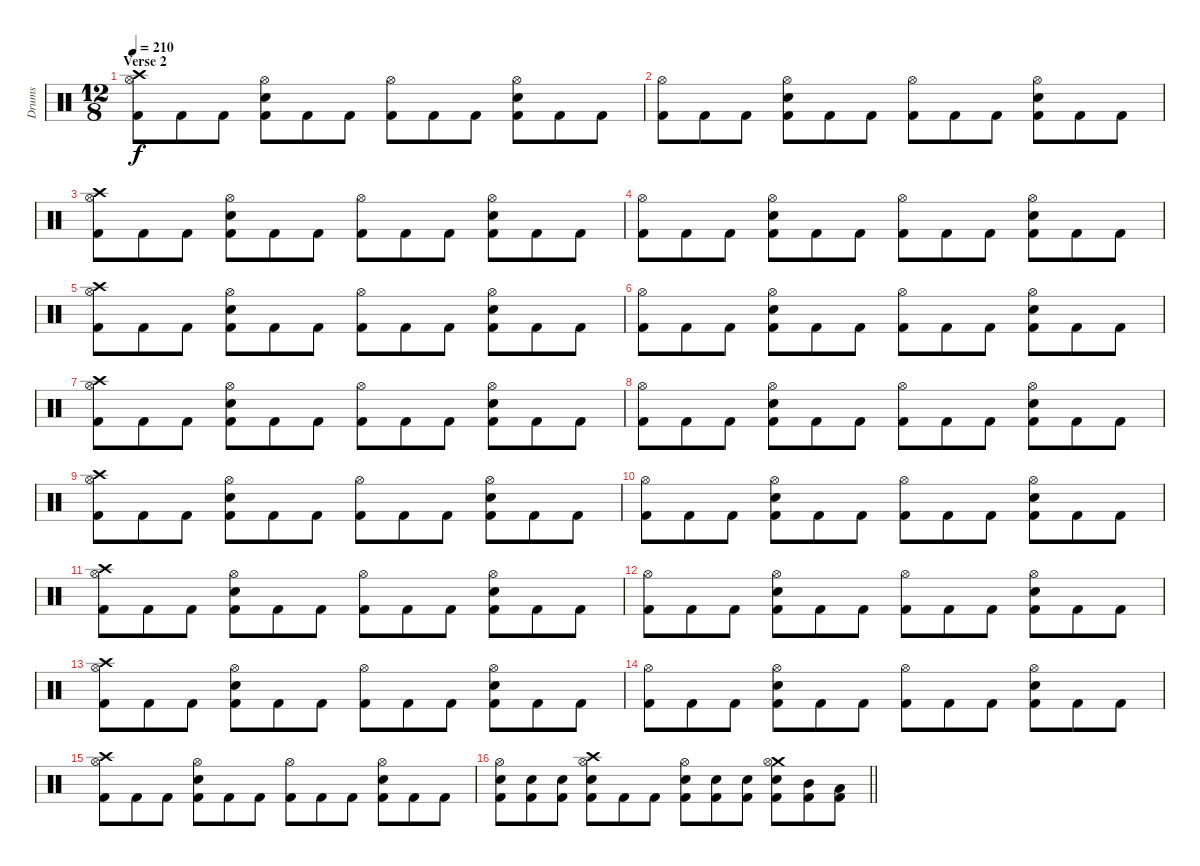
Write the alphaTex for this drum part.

\track ("Drums" "Drums") {instrument percussion}
\staff {score}
\articulation defaults
\ts (12 8)
\section ("" "Verse 2")
\tempo 210
\clef neutral
\ks c
("Crash high (hit)" "Hi-Hat (open)" "Kick (hit) 2").8{dy f} "Kick (hit) 2".8 "Kick (hit) 2".8 ("Hi-Hat (open)" "Snare (hit) 2" "Kick (hit) 2").8 "Kick (hit) 2".8 "Kick (hit) 2".8 ("Hi-Hat (open)" "Kick (hit) 2").8 "Kick (hit) 2".8 "Kick (hit) 2".8 ("Hi-Hat (open)" "Snare (hit) 2" "Kick (hit) 2").8 "Kick (hit) 2".8 "Kick (hit) 2".8 |
("Hi-Hat (open)" "Kick (hit) 2").8 "Kick (hit) 2".8 "Kick (hit) 2".8 ("Hi-Hat (open)" "Snare (hit) 2" "Kick (hit) 2").8 "Kick (hit) 2".8 "Kick (hit) 2".8 ("Hi-Hat (open)" "Kick (hit) 2").8 "Kick (hit) 2".8 "Kick (hit) 2".8 ("Hi-Hat (open)" "Snare (hit) 2" "Kick (hit) 2").8 "Kick (hit) 2".8 "Kick (hit) 2".8 |
("Crash high (hit)" "Hi-Hat (open)" "Kick (hit) 2").8 "Kick (hit) 2".8 "Kick (hit) 2".8 ("Hi-Hat (open)" "Snare (hit) 2" "Kick (hit) 2").8 "Kick (hit) 2".8 "Kick (hit) 2".8 ("Hi-Hat (open)" "Kick (hit) 2").8 "Kick (hit) 2".8 "Kick (hit) 2".8 ("Hi-Hat (open)" "Snare (hit) 2" "Kick (hit) 2").8 "Kick (hit) 2".8 "Kick (hit) 2".8 |
("Hi-Hat (open)" "Kick (hit) 2").8 "Kick (hit) 2".8 "Kick (hit) 2".8 ("Hi-Hat (open)" "Snare (hit) 2" "Kick (hit) 2").8 "Kick (hit) 2".8 "Kick (hit) 2".8 ("Hi-Hat (open)" "Kick (hit) 2").8 "Kick (hit) 2".8 "Kick (hit) 2".8 ("Hi-Hat (open)" "Snare (hit) 2" "Kick (hit) 2").8 "Kick (hit) 2".8 "Kick (hit) 2".8 |
("Crash high (hit)" "Hi-Hat (open)" "Kick (hit) 2").8 "Kick (hit) 2".8 "Kick (hit) 2".8 ("Hi-Hat (open)" "Snare (hit) 2" "Kick (hit) 2").8 "Kick (hit) 2".8 "Kick (hit) 2".8 ("Hi-Hat (open)" "Kick (hit) 2").8 "Kick (hit) 2".8 "Kick (hit) 2".8 ("Hi-Hat (open)" "Snare (hit) 2" "Kick (hit) 2").8 "Kick (hit) 2".8 "Kick (hit) 2".8 |
("Hi-Hat (open)" "Kick (hit) 2").8 "Kick (hit) 2".8 "Kick (hit) 2".8 ("Hi-Hat (open)" "Snare (hit) 2" "Kick (hit) 2").8 "Kick (hit) 2".8 "Kick (hit) 2".8 ("Hi-Hat (open)" "Kick (hit) 2").8 "Kick (hit) 2".8 "Kick (hit) 2".8 ("Hi-Hat (open)" "Snare (hit) 2" "Kick (hit) 2").8 "Kick (hit) 2".8 "Kick (hit) 2".8 |
("Crash high (hit)" "Hi-Hat (open)" "Kick (hit) 2").8 "Kick (hit) 2".8 "Kick (hit) 2".8 ("Hi-Hat (open)" "Snare (hit) 2" "Kick (hit) 2").8 "Kick (hit) 2".8 "Kick (hit) 2".8 ("Hi-Hat (open)" "Kick (hit) 2").8 "Kick (hit) 2".8 "Kick (hit) 2".8 ("Hi-Hat (open)" "Snare (hit) 2" "Kick (hit) 2").8 "Kick (hit) 2".8 "Kick (hit) 2".8 |
("Hi-Hat (open)" "Kick (hit) 2").8 "Kick (hit) 2".8 "Kick (hit) 2".8 ("Hi-Hat (open)" "Snare (hit) 2" "Kick (hit) 2").8 "Kick (hit) 2".8 "Kick (hit) 2".8 ("Hi-Hat (open)" "Kick (hit) 2").8 "Kick (hit) 2".8 "Kick (hit) 2".8 ("Hi-Hat (open)" "Snare (hit) 2" "Kick (hit) 2").8 "Kick (hit) 2".8 "Kick (hit) 2".8 |
("Crash high (hit)" "Hi-Hat (open)" "Kick (hit) 2").8 "Kick (hit) 2".8 "Kick (hit) 2".8 ("Hi-Hat (open)" "Snare (hit) 2" "Kick (hit) 2").8 "Kick (hit) 2".8 "Kick (hit) 2".8 ("Hi-Hat (open)" "Kick (hit) 2").8 "Kick (hit) 2".8 "Kick (hit) 2".8 ("Hi-Hat (open)" "Snare (hit) 2" "Kick (hit) 2").8 "Kick (hit) 2".8 "Kick (hit) 2".8 |
("Hi-Hat (open)" "Kick (hit) 2").8 "Kick (hit) 2".8 "Kick (hit) 2".8 ("Hi-Hat (open)" "Snare (hit) 2" "Kick (hit) 2").8 "Kick (hit) 2".8 "Kick (hit) 2".8 ("Hi-Hat (open)" "Kick (hit) 2").8 "Kick (hit) 2".8 "Kick (hit) 2".8 ("Hi-Hat (open)" "Snare (hit) 2" "Kick (hit) 2").8 "Kick (hit) 2".8 "Kick (hit) 2".8 |
("Crash high (hit)" "Hi-Hat (open)" "Kick (hit) 2").8 "Kick (hit) 2".8 "Kick (hit) 2".8 ("Hi-Hat (open)" "Snare (hit) 2" "Kick (hit) 2").8 "Kick (hit) 2".8 "Kick (hit) 2".8 ("Hi-Hat (open)" "Kick (hit) 2").8 "Kick (hit) 2".8 "Kick (hit) 2".8 ("Hi-Hat (open)" "Snare (hit) 2" "Kick (hit) 2").8 "Kick (hit) 2".8 "Kick (hit) 2".8 |
("Hi-Hat (open)" "Kick (hit) 2").8 "Kick (hit) 2".8 "Kick (hit) 2".8 ("Hi-Hat (open)" "Snare (hit) 2" "Kick (hit) 2").8 "Kick (hit) 2".8 "Kick (hit) 2".8 ("Hi-Hat (open)" "Kick (hit) 2").8 "Kick (hit) 2".8 "Kick (hit) 2".8 ("Hi-Hat (open)" "Snare (hit) 2" "Kick (hit) 2").8 "Kick (hit) 2".8 "Kick (hit) 2".8 |
("Crash high (hit)" "Hi-Hat (open)" "Kick (hit) 2").8 "Kick (hit) 2".8 "Kick (hit) 2".8 ("Hi-Hat (open)" "Snare (hit) 2" "Kick (hit) 2").8 "Kick (hit) 2".8 "Kick (hit) 2".8 ("Hi-Hat (open)" "Kick (hit) 2").8 "Kick (hit) 2".8 "Kick (hit) 2".8 ("Hi-Hat (open)" "Snare (hit) 2" "Kick (hit) 2").8 "Kick (hit) 2".8 "Kick (hit) 2".8 |
("Hi-Hat (open)" "Kick (hit) 2").8 "Kick (hit) 2".8 "Kick (hit) 2".8 ("Hi-Hat (open)" "Snare (hit) 2" "Kick (hit) 2").8 "Kick (hit) 2".8 "Kick (hit) 2".8 ("Hi-Hat (open)" "Kick (hit) 2").8 "Kick (hit) 2".8 "Kick (hit) 2".8 ("Hi-Hat (open)" "Snare (hit) 2" "Kick (hit) 2").8 "Kick (hit) 2".8 "Kick (hit) 2".8 |
("Crash high (hit)" "Hi-Hat (open)" "Kick (hit) 2").8 "Kick (hit) 2".8 "Kick (hit) 2".8 ("Hi-Hat (open)" "Snare (hit) 2" "Kick (hit) 2").8 "Kick (hit) 2".8 "Kick (hit) 2".8 ("Hi-Hat (open)" "Kick (hit) 2").8 "Kick (hit) 2".8 "Kick (hit) 2".8 ("Hi-Hat (open)" "Snare (hit) 2" "Kick (hit) 2").8 "Kick (hit) 2".8 "Kick (hit) 2".8 |
\barLineRight lightlight
("Hi-Hat (open)" "Snare (hit) 2" "Kick (hit) 2").8 ("Snare (hit) 2" "Kick (hit) 2").8 ("Snare (hit) 2" "Kick (hit) 2").8 ("Crash high (hit)" "Hi-Hat (open)" "Snare (hit) 2" "Kick (hit) 2").8 "Kick (hit) 2".8 "Kick (hit) 2".8 ("Hi-Hat (open)" "Snare (hit) 2" "Kick (hit) 2").8 ("Snare (hit) 2" "Kick (hit) 2").8 ("Snare (hit) 2" "Kick (hit) 2").8 ("Crash medium (hit)" "Hi-Hat (open)" "Snare (hit) 2" "Kick (hit) 2").8 ("Mid Tom (hit)" "Kick (hit) 2").8 ("Low Tom (hit)" "Kick (hit) 2").8
